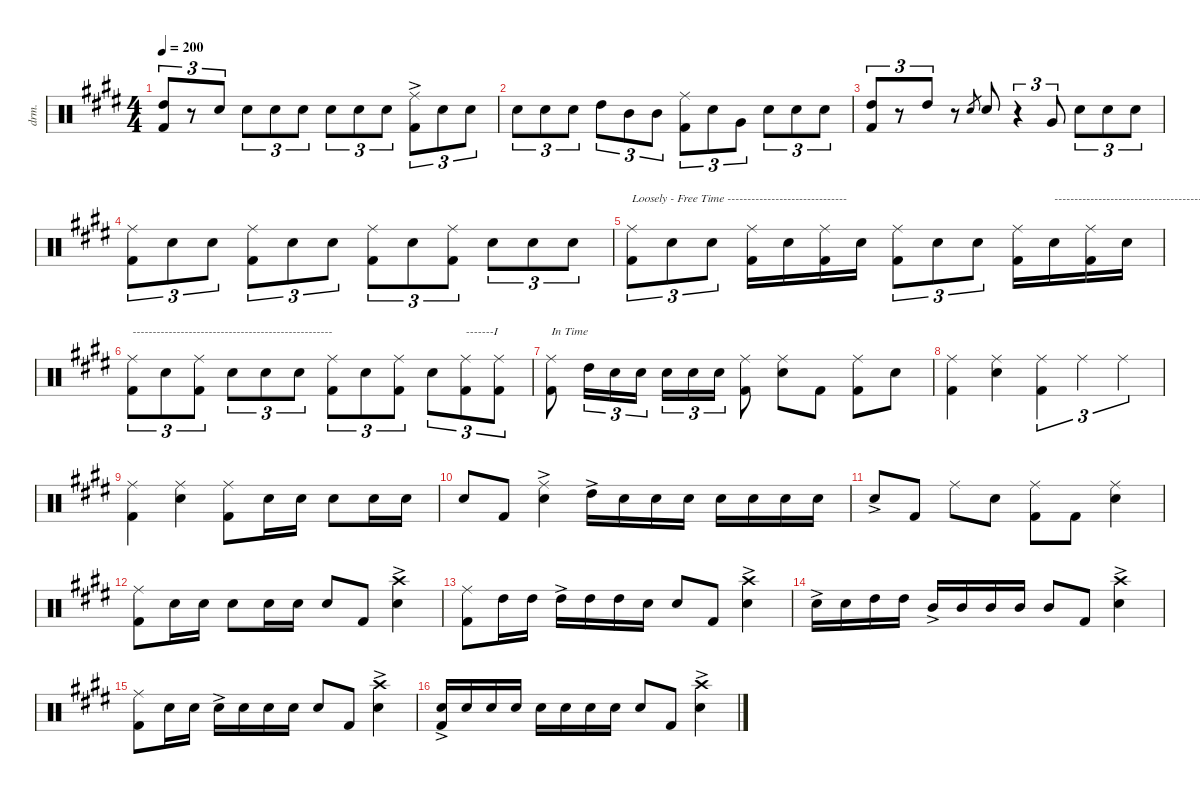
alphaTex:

\defaultSystemsLayout 4
\hideDynamics
\bracketExtendMode nobrackets
\otherSystemsTrackNameOrientation horizontal
\track ("Mitch" "drm.") {instrument percussion}
\staff {score}
\articulation defaults
\ts (4 4)
\tempo 200
\clef neutral
\ks e
("High Tom (hit)"{acc forcenatural} "Kick (hit) 2"{acc forcenatural}).8{tu (3 2) dy ff beam Up} r.8{tu (3 2) beam Up} "Snare (hit) 2"{acc forcenatural}.8{tu (3 2) beam Up} "Snare (hit) 2"{acc forcenatural}.8{tu (3 2) beam Down} "Snare (hit) 2"{acc forcenatural}.8{tu (3 2) beam Down} "Snare (hit) 2"{acc forcenatural}.8{tu (3 2) beam Down} "Snare (hit) 2"{acc forcenatural}.8{tu (3 2) beam Down} "Snare (hit) 2"{acc forcenatural}.8{tu (3 2) beam Down} "Snare (hit) 2"{acc forcenatural}.8{tu (3 2) beam Down} ("Ride (middle)"{ac acc forcenatural} "Kick (hit) 2"{acc forcenatural}).8{tu (3 2) beam Down} "Snare (hit) 2"{acc forcenatural}.8{tu (3 2) beam Down} "Snare (hit) 2"{acc forcenatural}.8{tu (3 2) beam Down} |
"Snare (hit) 2"{acc forcenatural}.8{tu (3 2) beam Down} "Snare (hit) 2"{acc forcenatural}.8{tu (3 2) beam Down} "Snare (hit) 2"{acc forcenatural}.8{tu (3 2) beam Down} "High Tom (hit)"{acc forcenatural}.8{tu (3 2) beam Down} "Mid Tom (hit)"{acc forcenatural}.8{tu (3 2) beam Down} "Mid Tom (hit)"{acc forcenatural}.8{tu (3 2) beam Down} ("Ride (middle)"{acc forcenatural} "Kick (hit) 2"{acc forcenatural}).8{tu (3 2) beam Down} "Snare (hit) 2"{acc forcenatural}.8{tu (3 2) beam Down} "Very Low Tom (hit)"{acc forcenatural}.8{tu (3 2) beam Down} "Snare (hit) 2"{acc forcenatural}.8{tu (3 2) beam Down} "Snare (hit) 2"{acc forcenatural}.8{tu (3 2) beam Down} "Snare (hit) 2"{acc forcenatural}.8{tu (3 2) beam Down} |
("High Tom (hit)"{acc forcenatural} "Kick (hit) 2"{acc forcenatural}).8{tu (3 2) beam Up} r.8{tu (3 2) beam Up} "High Tom (hit)"{acc forcenatural}.8{tu (3 2) beam Up} r.8{beam Up} "Snare (hit) 2"{acc forcenatural}.8{gr dy f beam Up} "Snare (hit) 2"{acc forcenatural}.8{dy ff beam Down} r.4{tu (3 2) beam Down} "Very Low Tom (hit)"{acc forcenatural}.8{tu (3 2) beam Up} "Snare (hit) 2"{acc forcenatural}.8{tu (3 2) beam Down} "Snare (hit) 2"{acc forcenatural}.8{tu (3 2) beam Down} "Snare (hit) 2"{acc forcenatural}.8{tu (3 2) beam Down} |
("Ride (middle)"{acc forcenatural} "Kick (hit) 2"{acc forcenatural}).8{tu (3 2) beam Down} "Snare (hit) 2"{acc forcenatural}.8{tu (3 2) beam Down} "Snare (hit) 2"{acc forcenatural}.8{tu (3 2) beam Down} ("Ride (middle)"{acc forcenatural} "Kick (hit) 2"{acc forcenatural}).8{tu (3 2) beam Down} "Snare (hit) 2"{acc forcenatural}.8{tu (3 2) beam Down} "Snare (hit) 2"{acc forcenatural}.8{tu (3 2) beam Down} ("Ride (middle)"{acc forcenatural} "Kick (hit) 2"{acc forcenatural}).8{tu (3 2) beam Down} "Snare (hit) 2"{acc forcenatural}.8{tu (3 2) beam Down} ("Ride (middle)"{acc forcenatural} "Kick (hit) 2"{acc forcenatural}).8{tu (3 2) beam Down} "Snare (hit) 2"{acc forcenatural}.8{tu (3 2) beam Down} "Snare (hit) 2"{acc forcenatural}.8{tu (3 2) beam Down} "Snare (hit) 2"{acc forcenatural}.8{tu (3 2) beam Down} |
("Ride (middle)"{acc forcenatural} "Kick (hit) 2"{acc forcenatural}).8{tu (3 2) txt "Loosely - Free Time ------------------------------" beam Down} "Snare (hit) 2"{acc forcenatural}.8{tu (3 2) beam Down} "Snare (hit) 2"{acc forcenatural}.8{tu (3 2) beam Down} ("Ride (middle)"{acc forcenatural} "Kick (hit) 2"{acc forcenatural}).16{beam Down} "Snare (hit) 2"{acc forcenatural}.16{beam Down} ("Ride (middle)"{acc forcenatural} "Kick (hit) 2"{acc forcenatural}).16{beam Down} "Snare (hit) 2"{acc forcenatural}.16{beam Down} ("Ride (middle)"{acc forcenatural} "Kick (hit) 2"{acc forcenatural}).8{tu (3 2) beam Down} "Snare (hit) 2"{acc forcenatural}.8{tu (3 2) beam Down} "Snare (hit) 2"{acc forcenatural}.8{tu (3 2) beam Down} ("Ride (middle)"{acc forcenatural} "Kick (hit) 2"{acc forcenatural}).16{beam Down} "Snare (hit) 2"{acc forcenatural}.16{txt "--------------------------------------------------" beam Down} ("Ride (middle)"{acc forcenatural} "Kick (hit) 2"{acc forcenatural}).16{beam Down} "Snare (hit) 2"{acc forcenatural}.16{beam Down} |
("Ride (middle)"{acc forcenatural} "Kick (hit) 2"{acc forcenatural}).8{tu (3 2) txt "--------------------------------------------------" beam Down} "Snare (hit) 2"{acc forcenatural}.8{tu (3 2) beam Down} ("Ride (middle)"{acc forcenatural} "Kick (hit) 2"{acc forcenatural}).8{tu (3 2) beam Down} "Snare (hit) 2"{acc forcenatural}.8{tu (3 2) beam Down} "Snare (hit) 2"{acc forcenatural}.8{tu (3 2) beam Down} "Snare (hit) 2"{acc forcenatural}.8{tu (3 2) beam Down} ("Ride (middle)"{acc forcenatural} "Kick (hit) 2"{acc forcenatural}).8{tu (3 2) beam Down} "Snare (hit) 2"{acc forcenatural}.8{tu (3 2) beam Down} ("Ride (middle)"{acc forcenatural} "Kick (hit) 2"{acc forcenatural}).8{tu (3 2) beam Down} "Snare (hit) 2"{acc forcenatural}.8{tu (3 2) beam Down} ("Ride (middle)"{acc forcenatural} "Kick (hit) 2"{acc forcenatural}).8{tu (3 2) txt "-------I" beam Down} ("Ride (middle)"{acc forcenatural} "Kick (hit) 2"{acc forcenatural}).8{tu (3 2) beam Down} |
("Ride (middle)"{acc forcenatural} "Kick (hit) 2"{acc forcenatural}).8{txt "In Time" beam Down} "High Tom (hit)"{acc forcenatural}.16{tu (3 2) beam Down} "Snare (hit) 2"{acc forcenatural}.16{tu (3 2) beam Down} "Snare (hit) 2"{acc forcenatural}.16{tu (3 2) beam Down} "Snare (hit) 2"{acc forcenatural}.16{tu (3 2) beam Down} "Snare (hit) 2"{acc forcenatural}.16{tu (3 2) beam Down} "Snare (hit) 2"{acc forcenatural}.16{tu (3 2) beam Down} ("Ride (middle)"{acc forcenatural} "Kick (hit) 2"{acc forcenatural}).8{beam Down} ("Ride (middle)"{acc forcenatural} "Snare (hit) 2"{acc forcenatural}).8{beam Down} "Kick (hit) 2"{acc forcenatural}.8{beam Down} ("Ride (middle)"{acc forcenatural} "Kick (hit) 2"{acc forcenatural}).8{beam Down} "Snare (hit) 2"{acc forcenatural}.8{beam Down} |
("Ride (middle)"{acc forcenatural} "Kick (hit) 2"{acc forcenatural}).4{beam Down} ("Ride (middle)"{acc forcenatural} "Snare (hit) 2"{acc forcenatural}).4{beam Down} ("Ride (middle)"{acc forcenatural} "Kick (hit) 2"{acc forcenatural}).4{tu (3 2) beam Down} "Ride (middle)"{acc forcenatural}.4{tu (3 2) beam Down} "Ride (middle)"{acc forcenatural}.4{tu (3 2) beam Down} |
("Ride (middle)"{acc forcenatural} "Kick (hit) 2"{acc forcenatural}).4{beam Down} ("Ride (middle)"{acc forcenatural} "Snare (hit) 2"{acc forcenatural}).4{beam Down} ("Ride (middle)"{acc forcenatural} "Kick (hit) 2"{acc forcenatural}).8{beam Down} "Snare (hit) 2"{acc forcenatural}.16{beam Down} "Snare (hit) 2"{acc forcenatural}.16{beam Down} "Snare (hit) 2"{acc forcenatural}.8{beam Down} "Snare (hit) 2"{acc forcenatural}.16{beam Down} "Snare (hit) 2"{acc forcenatural}.16{beam Down} |
"Snare (hit) 2"{acc forcenatural}.8{beam Up} "Kick (hit) 2"{acc forcenatural}.8{beam Up} ("Ride (middle)"{ac acc forcenatural} "Snare (hit) 2"{acc forcenatural}).4{beam Down} "High Tom (hit)"{ac acc forcenatural}.16{beam Down} "Snare (hit) 2"{acc forcenatural}.16{beam Down} "Snare (hit) 2"{acc forcenatural}.16{beam Down} "Snare (hit) 2"{acc forcenatural}.16{beam Down} "Snare (hit) 2"{acc forcenatural}.16{beam Down} "Snare (hit) 2"{acc forcenatural}.16{beam Down} "Snare (hit) 2"{acc forcenatural}.16{beam Down} "Snare (hit) 2"{acc forcenatural}.16{beam Down} |
"Snare (hit) 2"{ac acc forcenatural}.8{beam Up} "Kick (hit) 2"{acc forcenatural}.8{beam Up} "Ride (middle)"{acc forcenatural}.8{beam Down} "Snare (hit) 2"{acc forcenatural}.8{beam Down} ("Ride (middle)"{acc forcenatural} "Kick (hit) 2"{acc forcenatural}).8{dy f beam Down} "Kick (hit) 2"{acc forcenatural}.8{dy ff beam Down} ("Ride (middle)"{acc forcenatural} "Snare (hit) 2"{acc forcenatural}).4{beam Down} |
("Ride (middle)"{acc forcenatural} "Kick (hit) 2"{acc forcenatural}).8{dy f beam Down} "Snare (hit) 2"{acc forcenatural}.16{beam Down} "Snare (hit) 2"{acc forcenatural}.16{beam Down} "Snare (hit) 2"{acc forcenatural}.8{beam Down} "Snare (hit) 2"{acc forcenatural}.16{beam Down} "Snare (hit) 2"{acc forcenatural}.16{beam Down} "Snare (hit) 2"{acc forcenatural}.8{beam Up} "Kick (hit) 2"{acc forcenatural}.8{beam Up} ("Crash high (hit)"{ac acc forcenatural} "Snare (hit) 2"{acc forcenatural}).4{beam Down} |
("Ride (middle)"{acc forcenatural} "Kick (hit) 2"{acc forcenatural}).8{beam Down} "High Tom (hit)"{acc forcenatural}.16{beam Down} "High Tom (hit)"{acc forcenatural}.16{beam Down} "High Tom (hit)"{ac acc forcenatural}.16{beam Down} "High Tom (hit)"{acc forcenatural}.16{beam Down} "High Tom (hit)"{acc forcenatural}.16{beam Down} "Snare (hit) 2"{acc forcenatural}.16{beam Down} "Snare (hit) 2"{acc forcenatural}.8{beam Up} "Kick (hit) 2"{acc forcenatural}.8{beam Up} ("Crash high (hit)"{ac acc forcenatural} "Snare (hit) 2"{acc forcenatural}).4{beam Down} |
"Snare (hit) 2"{ac acc forcenatural}.16{beam Down} "Snare (hit) 2"{acc forcenatural}.16{beam Down} "High Tom (hit)"{acc forcenatural}.16{beam Down} "High Tom (hit)"{acc forcenatural}.16{beam Down} "Mid Tom (hit)"{ac acc forcenatural}.16{beam Up} "Mid Tom (hit)"{acc forcenatural}.16{beam Up} "Mid Tom (hit)"{acc forcenatural}.16{beam Up} "Mid Tom (hit)"{acc forcenatural}.16{beam Up} "Mid Tom (hit)"{acc forcenatural}.8{beam Up} "Kick (hit) 2"{acc forcenatural}.8{beam Up} ("Crash high (hit)"{ac acc forcenatural} "Snare (hit) 2"{acc forcenatural}).4{beam Down} |
("Ride (middle)"{acc forcenatural} "Kick (hit) 2"{acc forcenatural}).8{beam Down} "Snare (hit) 2"{acc forcenatural}.16{beam Down} "Snare (hit) 2"{acc forcenatural}.16{beam Down} "Snare (hit) 2"{ac acc forcenatural}.16{beam Down} "Snare (hit) 2"{acc forcenatural}.16{beam Down} "Snare (hit) 2"{acc forcenatural}.16{beam Down} "Snare (hit) 2"{acc forcenatural}.16{beam Down} "Snare (hit) 2"{acc forcenatural}.8{beam Up} "Kick (hit) 2"{acc forcenatural}.8{beam Up} ("Crash high (hit)"{ac acc forcenatural} "Snare (hit) 2"{acc forcenatural}).4{beam Down} |
("Snare (hit) 2"{ac acc forcenatural} "Kick (hit) 2"{acc forcenatural}).16{beam Up} "Snare (hit) 2"{acc forcenatural}.16{beam Up} "Snare (hit) 2"{acc forcenatural}.16{beam Up} "Snare (hit) 2"{acc forcenatural}.16{beam Up} "Snare (hit) 2"{acc forcenatural}.16{beam Down} "Snare (hit) 2"{acc forcenatural}.16{beam Down} "Snare (hit) 2"{acc forcenatural}.16{beam Down} "Snare (hit) 2"{acc forcenatural}.16{beam Down} "Snare (hit) 2"{acc forcenatural}.8{beam Up} "Kick (hit) 2"{acc forcenatural}.8{beam Up} ("Crash high (hit)"{ac acc forcenatural} "Snare (hit) 2"{acc forcenatural}).4{beam Down}
